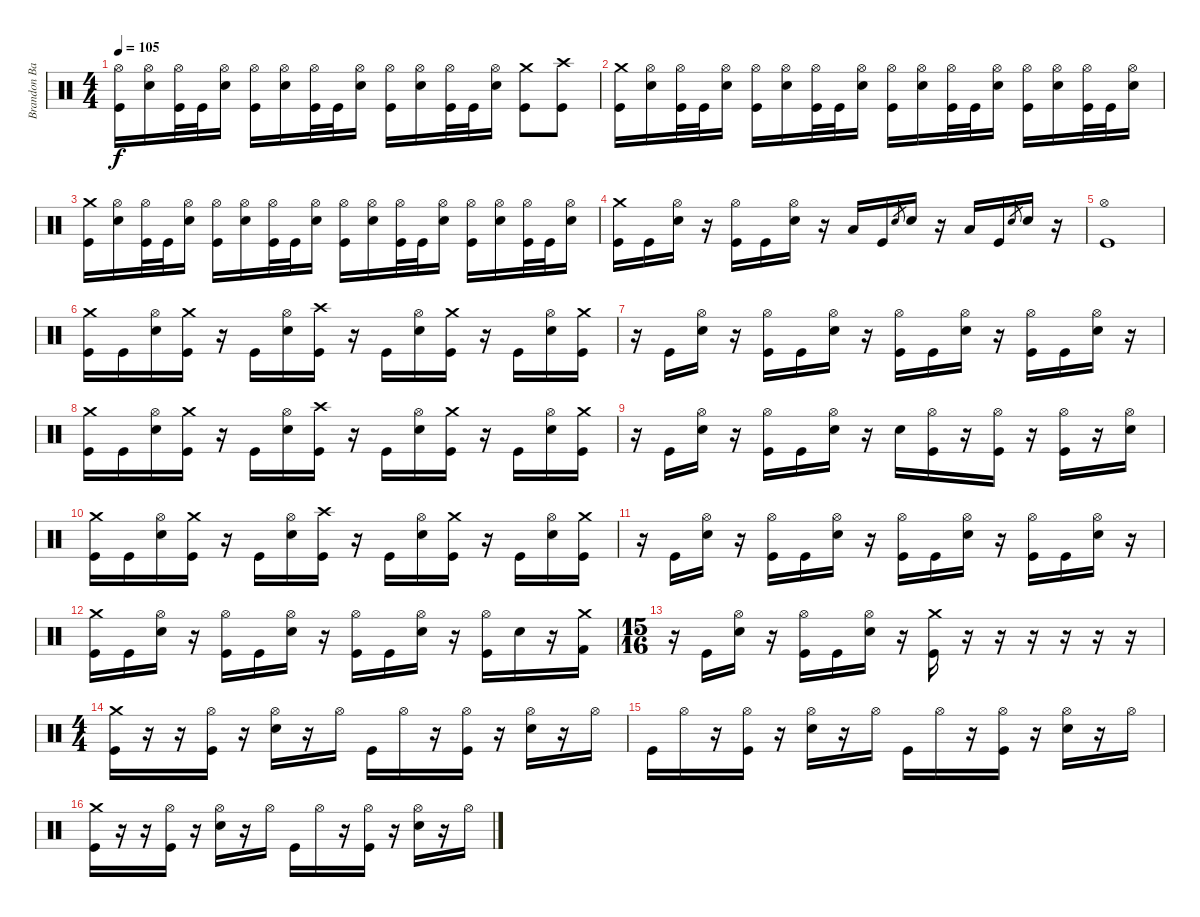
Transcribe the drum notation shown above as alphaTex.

\track ("Brandon Barnes" "Brandon Ba") {instrument percussion}
\staff {score}
\articulation defaults
\ts (4 4)
\tempo 105
\clef neutral
\ks c
("Hi-Hat (open)" "Kick (hit)").16{dy f} ("Hi-Hat (open)" "Electric Snare (hit)").16 ("Hi-Hat (open)" "Kick (hit)").32 "Kick (hit)".32 ("Hi-Hat (open)" "Electric Snare (hit)").16 ("Hi-Hat (open)" "Kick (hit)").16 ("Hi-Hat (open)" "Electric Snare (hit)").16 ("Hi-Hat (open)" "Kick (hit)").32 "Kick (hit)".32 ("Hi-Hat (open)" "Electric Snare (hit)").16 ("Hi-Hat (open)" "Kick (hit)").16 ("Hi-Hat (open)" "Electric Snare (hit)").16 ("Hi-Hat (open)" "Kick (hit)").32 "Kick (hit)".32 ("Hi-Hat (open)" "Electric Snare (hit)").16 ("Crash medium (hit)" "Kick (hit)").8 ("Crash high (hit)" "Kick (hit)").8 |
("Crash medium (hit)" "Kick (hit)").16 ("Hi-Hat (open)" "Electric Snare (hit)").16 ("Hi-Hat (open)" "Kick (hit)").32 "Kick (hit)".32 ("Hi-Hat (open)" "Electric Snare (hit)").16 ("Hi-Hat (open)" "Kick (hit)").16 ("Hi-Hat (open)" "Electric Snare (hit)").16 ("Hi-Hat (open)" "Kick (hit)").32 "Kick (hit)".32 ("Hi-Hat (open)" "Electric Snare (hit)").16 ("Hi-Hat (open)" "Kick (hit)").16 ("Hi-Hat (open)" "Electric Snare (hit)").16 ("Hi-Hat (open)" "Kick (hit)").32 "Kick (hit)".32 ("Hi-Hat (open)" "Electric Snare (hit)").16 ("Hi-Hat (open)" "Kick (hit)").16 ("Hi-Hat (open)" "Electric Snare (hit)").16 ("Hi-Hat (open)" "Kick (hit)").32 "Kick (hit)".32 ("Hi-Hat (open)" "Electric Snare (hit)").16 |
("Crash medium (hit)" "Kick (hit)").16 ("Hi-Hat (open)" "Electric Snare (hit)").16 ("Hi-Hat (open)" "Kick (hit)").32 "Kick (hit)".32 ("Hi-Hat (open)" "Electric Snare (hit)").16 ("Hi-Hat (open)" "Kick (hit)").16 ("Hi-Hat (open)" "Electric Snare (hit)").16 ("Hi-Hat (open)" "Kick (hit)").32 "Kick (hit)".32 ("Hi-Hat (open)" "Electric Snare (hit)").16 ("Hi-Hat (open)" "Kick (hit)").16 ("Hi-Hat (open)" "Electric Snare (hit)").16 ("Hi-Hat (open)" "Kick (hit)").32 "Kick (hit)".32 ("Hi-Hat (open)" "Electric Snare (hit)").16 ("Hi-Hat (open)" "Kick (hit)").16 ("Hi-Hat (open)" "Electric Snare (hit)").16 ("Hi-Hat (open)" "Kick (hit)").32 "Kick (hit)".32 ("Hi-Hat (open)" "Electric Snare (hit)").16 |
("Crash medium (hit)" "Kick (hit)").16 "Kick (hit)".16 ("Hi-Hat (open)" "Electric Snare (hit)").16 r.16 ("Hi-Hat (open)" "Kick (hit)").16 "Kick (hit)".16 ("Hi-Hat (open)" "Electric Snare (hit)").16 r.16 "Low Tom (hit)".16 "Kick (hit)".16 "Electric Snare (hit)".8{gr} "Electric Snare (hit)".16 r.16 "Low Tom (hit)".16 "Kick (hit)".16 "Electric Snare (hit)".8{gr} "Electric Snare (hit)".16 r.16 |
("Hi-Hat (open)" "Kick (hit)").1 |
("Crash medium (hit)" "Kick (hit)").16 "Kick (hit)".16 ("Hi-Hat (open)" "Electric Snare (hit)").16 ("Crash medium (hit)" "Kick (hit)").16 r.16 "Kick (hit)".16 ("Hi-Hat (open)" "Electric Snare (hit)").16 ("Crash high (hit)" "Kick (hit)").16 r.16 "Kick (hit)".16 ("Hi-Hat (open)" "Electric Snare (hit)").16 ("Crash medium (hit)" "Kick (hit)").16 r.16 "Kick (hit)".16 ("Hi-Hat (open)" "Electric Snare (hit)").16 ("Crash medium (hit)" "Kick (hit)").16 |
r.16 "Kick (hit)".16 ("Hi-Hat (open)" "Electric Snare (hit)").16 r.16 ("Hi-Hat (open)" "Kick (hit)").16 "Kick (hit)".16 ("Hi-Hat (open)" "Electric Snare (hit)").16 r.16 ("Hi-Hat (open)" "Kick (hit)").16 "Kick (hit)".16 ("Hi-Hat (open)" "Electric Snare (hit)").16 r.16 ("Hi-Hat (open)" "Kick (hit)").16 "Kick (hit)".16 ("Hi-Hat (open)" "Electric Snare (hit)").16 r.16 |
("Crash medium (hit)" "Kick (hit)").16 "Kick (hit)".16 ("Hi-Hat (open)" "Electric Snare (hit)").16 ("Crash medium (hit)" "Kick (hit)").16 r.16 "Kick (hit)".16 ("Hi-Hat (open)" "Electric Snare (hit)").16 ("Crash high (hit)" "Kick (hit)").16 r.16 "Kick (hit)".16 ("Hi-Hat (open)" "Electric Snare (hit)").16 ("Crash medium (hit)" "Kick (hit)").16 r.16 "Kick (hit)".16 ("Hi-Hat (open)" "Electric Snare (hit)").16 ("Crash medium (hit)" "Kick (hit)").16 |
r.16 "Kick (hit)".16 ("Hi-Hat (open)" "Electric Snare (hit)").16 r.16 ("Hi-Hat (open)" "Kick (hit)").16 "Kick (hit)".16 ("Hi-Hat (open)" "Electric Snare (hit)").16 r.16 "Electric Snare (hit)".16 ("Hi-Hat (open)" "Kick (hit)").16 r.16 ("Hi-Hat (open)" "Kick (hit)").16 r.16 ("Hi-Hat (open)" "Kick (hit)").16 r.16 ("Hi-Hat (open)" "Electric Snare (hit)").16 |
("Crash medium (hit)" "Kick (hit)").16 "Kick (hit)".16 ("Hi-Hat (open)" "Electric Snare (hit)").16 ("Crash medium (hit)" "Kick (hit)").16 r.16 "Kick (hit)".16 ("Hi-Hat (open)" "Electric Snare (hit)").16 ("Crash high (hit)" "Kick (hit)").16 r.16 "Kick (hit)".16 ("Hi-Hat (open)" "Electric Snare (hit)").16 ("Crash medium (hit)" "Kick (hit)").16 r.16 "Kick (hit)".16 ("Hi-Hat (open)" "Electric Snare (hit)").16 ("Crash medium (hit)" "Kick (hit)").16 |
r.16 "Kick (hit)".16 ("Hi-Hat (open)" "Electric Snare (hit)").16 r.16 ("Hi-Hat (open)" "Kick (hit)").16 "Kick (hit)".16 ("Hi-Hat (open)" "Electric Snare (hit)").16 r.16 ("Hi-Hat (open)" "Kick (hit)").16 "Kick (hit)".16 ("Hi-Hat (open)" "Electric Snare (hit)").16 r.16 ("Hi-Hat (open)" "Kick (hit)").16 "Kick (hit)".16 ("Hi-Hat (open)" "Electric Snare (hit)").16 r.16 |
("Crash medium (hit)" "Kick (hit)").16 "Kick (hit)".16 ("Hi-Hat (open)" "Electric Snare (hit)").16 r.16 ("Hi-Hat (open)" "Kick (hit)").16 "Kick (hit)".16 ("Hi-Hat (open)" "Electric Snare (hit)").16 r.16 ("Hi-Hat (open)" "Kick (hit)").16 "Kick (hit)".16 ("Hi-Hat (open)" "Electric Snare (hit)").16 r.16 ("Hi-Hat (open)" "Kick (hit)").16 "Electric Snare (hit)".16 r.16 ("Crash medium (hit)" "Kick (hit) 2").16 |
\ts (15 16)
r.16 "Kick (hit)".16 ("Hi-Hat (open)" "Electric Snare (hit)").16 r.16 ("Hi-Hat (open)" "Kick (hit)").16 "Kick (hit)".16 ("Hi-Hat (open)" "Electric Snare (hit)").16 r.16 ("Crash medium (hit)" "Kick (hit)").16 r.16 r.16 r.16 r.16 r.16 r.16 |
\ts (4 4)
("Crash medium (hit)" "Kick (hit)").16 r.16 r.16 ("Hi-Hat (open)" "Kick (hit)").16 r.16 ("Hi-Hat (open)" "Electric Snare (hit)").16 r.16 "Hi-Hat (open)".16 "Kick (hit)".16 "Hi-Hat (open)".16 r.16 ("Hi-Hat (open)" "Kick (hit)").16 r.16 ("Hi-Hat (open)" "Electric Snare (hit)").16 r.16 "Hi-Hat (open)".16 |
"Kick (hit)".16 "Hi-Hat (open)".16 r.16 ("Hi-Hat (open)" "Kick (hit)").16 r.16 ("Hi-Hat (open)" "Electric Snare (hit)").16 r.16 "Hi-Hat (open)".16 "Kick (hit)".16 "Hi-Hat (open)".16 r.16 ("Hi-Hat (open)" "Kick (hit)").16 r.16 ("Hi-Hat (open)" "Electric Snare (hit)").16 r.16 "Hi-Hat (open)".16 |
("Crash medium (hit)" "Kick (hit)").16 r.16 r.16 ("Hi-Hat (open)" "Kick (hit)").16 r.16 ("Hi-Hat (open)" "Electric Snare (hit)").16 r.16 "Hi-Hat (open)".16 "Kick (hit)".16 "Hi-Hat (open)".16 r.16 ("Hi-Hat (open)" "Kick (hit)").16 r.16 ("Hi-Hat (open)" "Electric Snare (hit)").16 r.16 "Hi-Hat (open)".16
